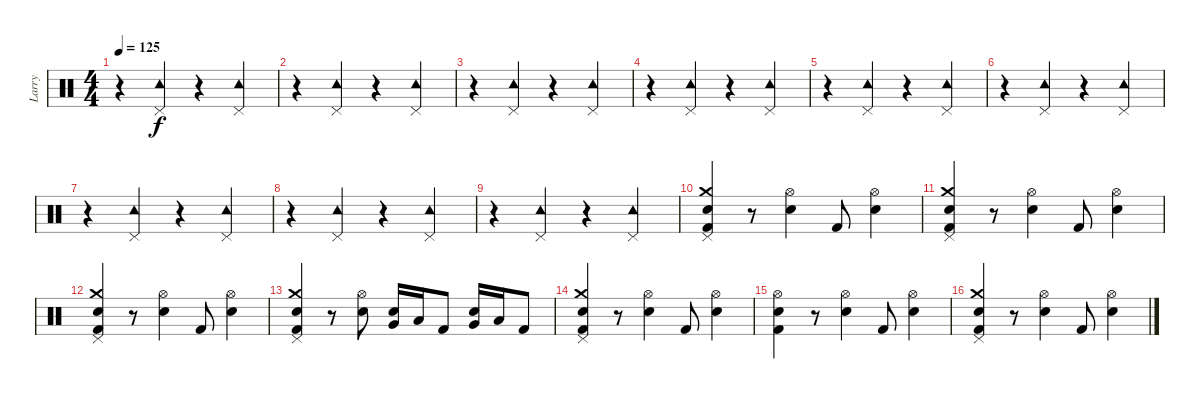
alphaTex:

\track ("Larry" "Larry") {instrument percussion}
\staff {score}
\articulation defaults
\ts (4 4)
\tempo 125
\clef neutral
\ks c
r.4{dy f} ("Pedal Hi-Hat (hit)" "Tambourine (hit)").4 r.4 ("Pedal Hi-Hat (hit)" "Tambourine (hit)").4 |
r.4 ("Pedal Hi-Hat (hit)" "Tambourine (hit)").4 r.4 ("Pedal Hi-Hat (hit)" "Tambourine (hit)").4 |
r.4 ("Pedal Hi-Hat (hit)" "Tambourine (hit)").4 r.4 ("Pedal Hi-Hat (hit)" "Tambourine (hit)").4 |
r.4 ("Pedal Hi-Hat (hit)" "Tambourine (hit)").4 r.4 ("Pedal Hi-Hat (hit)" "Tambourine (hit)").4 |
r.4 ("Pedal Hi-Hat (hit)" "Tambourine (hit)").4 r.4 ("Pedal Hi-Hat (hit)" "Tambourine (hit)").4 |
r.4 ("Pedal Hi-Hat (hit)" "Tambourine (hit)").4 r.4 ("Pedal Hi-Hat (hit)" "Tambourine (hit)").4 |
r.4 ("Pedal Hi-Hat (hit)" "Tambourine (hit)").4 r.4 ("Pedal Hi-Hat (hit)" "Tambourine (hit)").4 |
r.4 ("Pedal Hi-Hat (hit)" "Tambourine (hit)").4 r.4 ("Pedal Hi-Hat (hit)" "Tambourine (hit)").4 |
r.4 ("Pedal Hi-Hat (hit)" "Tambourine (hit)").4 r.4 ("Pedal Hi-Hat (hit)" "Tambourine (hit)").4 |
("Crash medium (hit)" "Electric Snare (hit)" "Kick (hit) 2" "Pedal Hi-Hat (hit)").4 r.8 ("Hi-Hat (open)" "Electric Snare (hit)").4 "Kick (hit) 2".8 ("Hi-Hat (open)" "Electric Snare (hit)").4 |
("Crash medium (hit)" "Electric Snare (hit)" "Kick (hit) 2" "Pedal Hi-Hat (hit)").4 r.8 ("Hi-Hat (open)" "Electric Snare (hit)").4 "Kick (hit) 2".8 ("Hi-Hat (open)" "Electric Snare (hit)").4 |
("Crash medium (hit)" "Electric Snare (hit)" "Kick (hit) 2" "Pedal Hi-Hat (hit)").4 r.8 ("Hi-Hat (open)" "Electric Snare (hit)").4 "Kick (hit) 2".8 ("Hi-Hat (open)" "Electric Snare (hit)").4 |
("Crash medium (hit)" "Electric Snare (hit)" "Kick (hit) 2" "Pedal Hi-Hat (hit)").4 r.8 ("Hi-Hat (open)" "Electric Snare (hit)").8 ("Very Low Tom (hit)" "Electric Snare (hit)").16 "Low Tom (hit)".16 "Kick (hit) 2".8 ("Very Low Tom (hit)" "Electric Snare (hit)").16 "Low Tom (hit)".16 "Kick (hit) 2".8 |
("Crash medium (hit)" "Electric Snare (hit)" "Kick (hit) 2" "Pedal Hi-Hat (hit)").4 r.8 ("Hi-Hat (open)" "Electric Snare (hit)").4 "Kick (hit) 2".8 ("Hi-Hat (open)" "Electric Snare (hit)").4 |
("Hi-Hat (open)" "Electric Snare (hit)" "Kick (hit) 2").4 r.8 ("Hi-Hat (open)" "Electric Snare (hit)").4 "Kick (hit) 2".8 ("Hi-Hat (open)" "Electric Snare (hit)").4 |
("Crash medium (hit)" "Electric Snare (hit)" "Kick (hit) 2" "Pedal Hi-Hat (hit)").4 r.8 ("Hi-Hat (open)" "Electric Snare (hit)").4 "Kick (hit) 2".8 ("Hi-Hat (open)" "Electric Snare (hit)").4
